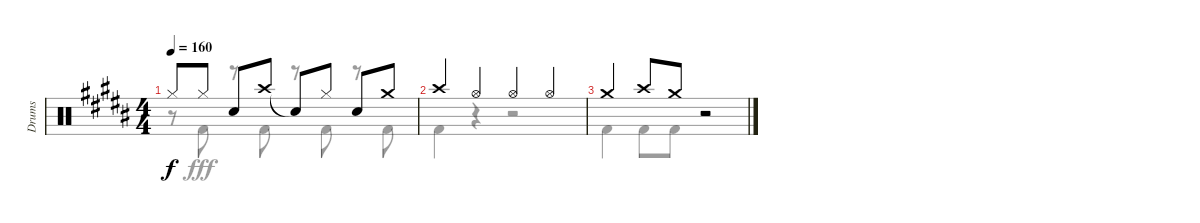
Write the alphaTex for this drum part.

\track ("Drums" "Drums") {instrument percussion}
\staff {score}
\articulation defaults
\voice
\ts (4 4)
\tempo 160
\clef neutral
\ks b "Hi-Hat (closed)".8{dy f} "Hi-Hat (closed)".8 "Snare (hit) 2".8 "Crash high (hit)".8 "Snare (hit)"{t}.8 "Hi-Hat (closed)".8 "Snare (hit) 2".8 "Crash medium (hit)".8
|
"Crash high (hit)".4 "Hi-Hat (open)".4 "Hi-Hat (open)".4 "Hi-Hat (open)".4 |
"Crash medium (hit)".4 "Crash high (hit)".8 "Crash medium (hit)".8 r.2
\voice
\clef neutral
\ottava regular
\simile none
\ks b
r.8{dy fff} "Kick (hit) 2".8 r.8 "Kick (hit) 2".8 r.8 "Kick (hit) 2".8 r.8 "Kick (hit) 2".8 |
"Kick (hit) 2".4 r.4 r.2 |
"Kick (hit) 2".4 "Kick (hit) 2".8 "Kick (hit) 2".8 r.2
